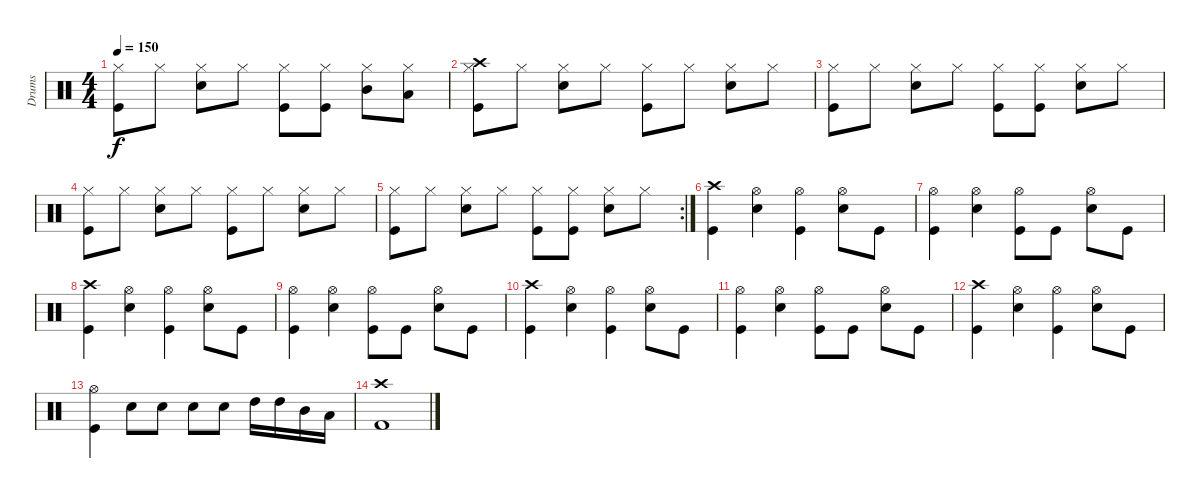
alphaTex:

\track ("Drums" "Drums") {instrument percussion}
\staff {score}
\articulation defaults
\ts (4 4)
\tempo 150
\clef neutral
\ks c
("Hi-Hat (closed)" "Kick (hit)").8{dy f} "Hi-Hat (closed)".8 ("Hi-Hat (closed)" "Electric Snare (hit)").8 "Hi-Hat (closed)".8 ("Hi-Hat (closed)" "Kick (hit)").8 ("Hi-Hat (closed)" "Kick (hit)").8 ("Hi-Hat (closed)" "Mid Tom (hit)").8 ("Hi-Hat (closed)" "Low Tom (hit)").8 |
("Crash high (hit)" "Hi-Hat (closed)" "Kick (hit)").8 "Hi-Hat (closed)".8 ("Hi-Hat (closed)" "Electric Snare (hit)").8 "Hi-Hat (closed)".8 ("Hi-Hat (closed)" "Kick (hit)").8 "Hi-Hat (closed)".8 ("Hi-Hat (closed)" "Electric Snare (hit)").8 "Hi-Hat (closed)".8 |
("Hi-Hat (closed)" "Kick (hit)").8 "Hi-Hat (closed)".8 ("Hi-Hat (closed)" "Electric Snare (hit)").8 "Hi-Hat (closed)".8 ("Hi-Hat (closed)" "Kick (hit)").8 ("Hi-Hat (closed)" "Kick (hit)").8 ("Hi-Hat (closed)" "Electric Snare (hit)").8 "Hi-Hat (closed)".8 |
("Hi-Hat (closed)" "Kick (hit)").8 "Hi-Hat (closed)".8 ("Hi-Hat (closed)" "Electric Snare (hit)").8 "Hi-Hat (closed)".8 ("Hi-Hat (closed)" "Kick (hit)").8 "Hi-Hat (closed)".8 ("Hi-Hat (closed)" "Electric Snare (hit)").8 "Hi-Hat (closed)".8 |
\rc 2
("Hi-Hat (closed)" "Kick (hit)").8 "Hi-Hat (closed)".8 ("Hi-Hat (closed)" "Electric Snare (hit)").8 "Hi-Hat (closed)".8 ("Hi-Hat (closed)" "Kick (hit)").8 ("Hi-Hat (closed)" "Kick (hit)").8 ("Hi-Hat (closed)" "Electric Snare (hit)").8 "Hi-Hat (closed)".8 |
("Crash high (hit)" "Kick (hit)").4 ("Hi-Hat (open)" "Snare (hit) 2").4 ("Hi-Hat (open)" "Kick (hit)").4 ("Hi-Hat (open)" "Snare (hit) 2").8 "Kick (hit)".8 |
("Hi-Hat (open)" "Kick (hit)").4 ("Hi-Hat (open)" "Snare (hit) 2").4 ("Hi-Hat (open)" "Kick (hit)").8 "Kick (hit)".8 ("Hi-Hat (open)" "Snare (hit) 2").8 "Kick (hit)".8 |
("Crash high (hit)" "Kick (hit)").4 ("Hi-Hat (open)" "Snare (hit) 2").4 ("Hi-Hat (open)" "Kick (hit)").4 ("Hi-Hat (open)" "Snare (hit) 2").8 "Kick (hit)".8 |
("Hi-Hat (open)" "Kick (hit)").4 ("Hi-Hat (open)" "Snare (hit) 2").4 ("Hi-Hat (open)" "Kick (hit)").8 "Kick (hit)".8 ("Hi-Hat (open)" "Snare (hit) 2").8 "Kick (hit)".8 |
("Crash high (hit)" "Kick (hit)").4 ("Hi-Hat (open)" "Snare (hit) 2").4 ("Hi-Hat (open)" "Kick (hit)").4 ("Hi-Hat (open)" "Snare (hit) 2").8 "Kick (hit)".8 |
("Hi-Hat (open)" "Kick (hit)").4 ("Hi-Hat (open)" "Snare (hit) 2").4 ("Hi-Hat (open)" "Kick (hit)").8 "Kick (hit)".8 ("Hi-Hat (open)" "Snare (hit) 2").8 "Kick (hit)".8 |
("Crash high (hit)" "Kick (hit)").4 ("Hi-Hat (open)" "Snare (hit) 2").4 ("Hi-Hat (open)" "Kick (hit)").4 ("Hi-Hat (open)" "Snare (hit) 2").8 "Kick (hit)".8 |
("Hi-Hat (open)" "Kick (hit)").4 "Snare (hit) 2".8 "Snare (hit) 2".8 "Snare (hit) 2".8 "Snare (hit) 2".8 "High Tom (hit)".16 "High Tom (hit)".16 "Mid Tom (hit)".16 "Low Tom (hit)".16 |
("Crash high (hit)" "Kick (hit) 2").1
